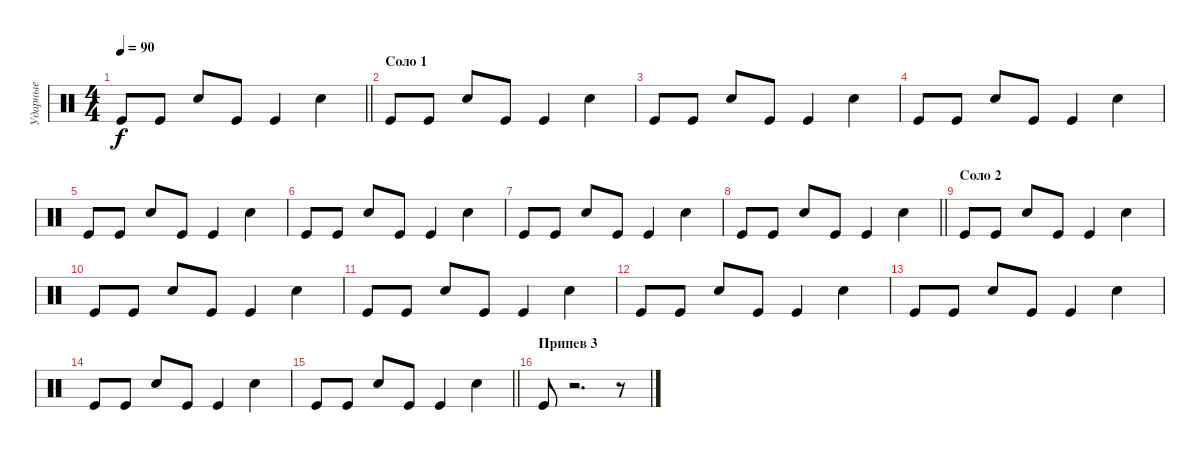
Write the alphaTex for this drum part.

\track ("Ударные" "Ударные") {instrument percussion}
\staff
\articulation defaults
\ts (4 4)
\tempo 90
\clef neutral
\barLineRight lightlight
\ks c "Kick (hit)".8{dy f} "Kick (hit)".8 "Snare (hit) 2".8 "Kick (hit)".8 "Kick (hit)".4 "Snare (hit) 2".4
|
\section ("" "Соло 1")
"Kick (hit)".8 "Kick (hit)".8 "Snare (hit) 2".8 "Kick (hit)".8 "Kick (hit)".4 "Snare (hit) 2".4 |
"Kick (hit)".8 "Kick (hit)".8 "Snare (hit) 2".8 "Kick (hit)".8 "Kick (hit)".4 "Snare (hit) 2".4 |
"Kick (hit)".8 "Kick (hit)".8 "Snare (hit) 2".8 "Kick (hit)".8 "Kick (hit)".4 "Snare (hit) 2".4 |
"Kick (hit)".8 "Kick (hit)".8 "Snare (hit) 2".8 "Kick (hit)".8 "Kick (hit)".4 "Snare (hit) 2".4 |
"Kick (hit)".8 "Kick (hit)".8 "Snare (hit) 2".8 "Kick (hit)".8 "Kick (hit)".4 "Snare (hit) 2".4 |
"Kick (hit)".8 "Kick (hit)".8 "Snare (hit) 2".8 "Kick (hit)".8 "Kick (hit)".4 "Snare (hit) 2".4 |
\barLineRight lightlight "Kick (hit)".8 "Kick (hit)".8 "Snare (hit) 2".8 "Kick (hit)".8 "Kick (hit)".4 "Snare (hit) 2".4
|
\section ("" "Соло 2")
"Kick (hit)".8 "Kick (hit)".8 "Snare (hit) 2".8 "Kick (hit)".8 "Kick (hit)".4 "Snare (hit) 2".4 |
"Kick (hit)".8 "Kick (hit)".8 "Snare (hit) 2".8 "Kick (hit)".8 "Kick (hit)".4 "Snare (hit) 2".4 |
"Kick (hit)".8 "Kick (hit)".8 "Snare (hit) 2".8 "Kick (hit)".8 "Kick (hit)".4 "Snare (hit) 2".4 |
"Kick (hit)".8 "Kick (hit)".8 "Snare (hit) 2".8 "Kick (hit)".8 "Kick (hit)".4 "Snare (hit) 2".4 |
"Kick (hit)".8 "Kick (hit)".8 "Snare (hit) 2".8 "Kick (hit)".8 "Kick (hit)".4 "Snare (hit) 2".4 |
"Kick (hit)".8 "Kick (hit)".8 "Snare (hit) 2".8 "Kick (hit)".8 "Kick (hit)".4 "Snare (hit) 2".4 |
\barLineRight lightlight "Kick (hit)".8 "Kick (hit)".8 "Snare (hit) 2".8 "Kick (hit)".8 "Kick (hit)".4 "Snare (hit) 2".4
|
\section ("" "Припев 3")
"Kick (hit)".8 r.2{d} r.8
